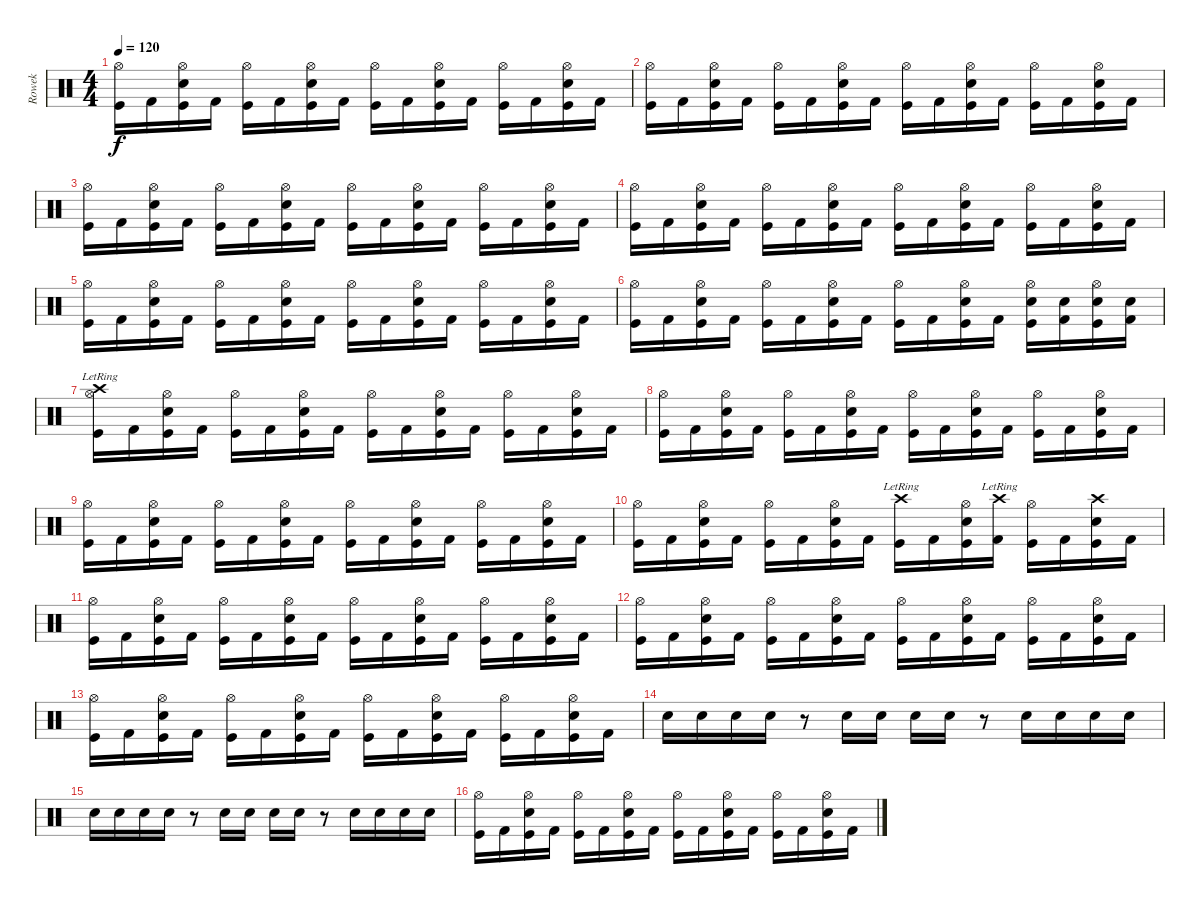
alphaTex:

\track ("Rowek" "Rowek") {instrument percussion}
\staff {score}
\articulation defaults
\ts (4 4)
\tempo 120
\clef neutral
\ks c
("Hi-Hat (open)" "Kick (hit)").16{dy f} "Kick (hit) 2".16 ("Hi-Hat (open)" "Snare (hit) 2" "Kick (hit)").16 "Kick (hit) 2".16 ("Hi-Hat (open)" "Kick (hit)").16 "Kick (hit) 2".16 ("Hi-Hat (open)" "Snare (hit) 2" "Kick (hit)").16 "Kick (hit) 2".16 ("Hi-Hat (open)" "Kick (hit)").16 "Kick (hit) 2".16 ("Hi-Hat (open)" "Snare (hit) 2" "Kick (hit)").16 "Kick (hit) 2".16 ("Hi-Hat (open)" "Kick (hit)").16 "Kick (hit) 2".16 ("Hi-Hat (open)" "Snare (hit) 2" "Kick (hit)").16 "Kick (hit) 2".16 |
("Hi-Hat (open)" "Kick (hit)").16 "Kick (hit) 2".16 ("Hi-Hat (open)" "Snare (hit) 2" "Kick (hit)").16 "Kick (hit) 2".16 ("Hi-Hat (open)" "Kick (hit)").16 "Kick (hit) 2".16 ("Hi-Hat (open)" "Snare (hit) 2" "Kick (hit)").16 "Kick (hit) 2".16 ("Hi-Hat (open)" "Kick (hit)").16 "Kick (hit) 2".16 ("Hi-Hat (open)" "Snare (hit) 2" "Kick (hit)").16 "Kick (hit) 2".16 ("Hi-Hat (open)" "Kick (hit)").16 "Kick (hit) 2".16 ("Hi-Hat (open)" "Snare (hit) 2" "Kick (hit)").16 "Kick (hit) 2".16 |
("Hi-Hat (open)" "Kick (hit)").16 "Kick (hit) 2".16 ("Hi-Hat (open)" "Snare (hit) 2" "Kick (hit)").16 "Kick (hit) 2".16 ("Hi-Hat (open)" "Kick (hit)").16 "Kick (hit) 2".16 ("Hi-Hat (open)" "Snare (hit) 2" "Kick (hit)").16 "Kick (hit) 2".16 ("Hi-Hat (open)" "Kick (hit)").16 "Kick (hit) 2".16 ("Hi-Hat (open)" "Snare (hit) 2" "Kick (hit)").16 "Kick (hit) 2".16 ("Hi-Hat (open)" "Kick (hit)").16 "Kick (hit) 2".16 ("Hi-Hat (open)" "Snare (hit) 2" "Kick (hit)").16 "Kick (hit) 2".16 |
("Hi-Hat (open)" "Kick (hit)").16 "Kick (hit) 2".16 ("Hi-Hat (open)" "Snare (hit) 2" "Kick (hit)").16 "Kick (hit) 2".16 ("Hi-Hat (open)" "Kick (hit)").16 "Kick (hit) 2".16 ("Hi-Hat (open)" "Snare (hit) 2" "Kick (hit)").16 "Kick (hit) 2".16 ("Hi-Hat (open)" "Kick (hit)").16 "Kick (hit) 2".16 ("Hi-Hat (open)" "Snare (hit) 2" "Kick (hit)").16 "Kick (hit) 2".16 ("Hi-Hat (open)" "Kick (hit)").16 "Kick (hit) 2".16 ("Hi-Hat (open)" "Snare (hit) 2" "Kick (hit)").16 "Kick (hit) 2".16 |
("Hi-Hat (open)" "Kick (hit)").16 "Kick (hit) 2".16 ("Hi-Hat (open)" "Snare (hit) 2" "Kick (hit)").16 "Kick (hit) 2".16 ("Hi-Hat (open)" "Kick (hit)").16 "Kick (hit) 2".16 ("Hi-Hat (open)" "Snare (hit) 2" "Kick (hit)").16 "Kick (hit) 2".16 ("Hi-Hat (open)" "Kick (hit)").16 "Kick (hit) 2".16 ("Hi-Hat (open)" "Snare (hit) 2" "Kick (hit)").16 "Kick (hit) 2".16 ("Hi-Hat (open)" "Kick (hit)").16 "Kick (hit) 2".16 ("Hi-Hat (open)" "Snare (hit) 2" "Kick (hit)").16 "Kick (hit) 2".16 |
("Hi-Hat (open)" "Kick (hit)").16 "Kick (hit) 2".16 ("Hi-Hat (open)" "Snare (hit) 2" "Kick (hit)").16 "Kick (hit) 2".16 ("Hi-Hat (open)" "Kick (hit)").16 "Kick (hit) 2".16 ("Hi-Hat (open)" "Snare (hit) 2" "Kick (hit)").16 "Kick (hit) 2".16 ("Hi-Hat (open)" "Kick (hit)").16 "Kick (hit) 2".16 ("Hi-Hat (open)" "Snare (hit) 2" "Kick (hit)").16 "Kick (hit) 2".16 ("Hi-Hat (open)" "Snare (hit) 2" "Kick (hit)").16 ("Snare (hit) 2" "Kick (hit) 2").16 ("Hi-Hat (open)" "Snare (hit) 2" "Kick (hit)").16 ("Snare (hit) 2" "Kick (hit) 2").16 |
("Hi-Hat (open)" "Crash high (hit)"{lr} "Kick (hit)").16 "Kick (hit) 2".16 ("Hi-Hat (open)" "Snare (hit) 2" "Kick (hit)").16 "Kick (hit) 2".16 ("Hi-Hat (open)" "Kick (hit)").16 "Kick (hit) 2".16 ("Hi-Hat (open)" "Snare (hit) 2" "Kick (hit)").16 "Kick (hit) 2".16 ("Hi-Hat (open)" "Kick (hit)").16 "Kick (hit) 2".16 ("Hi-Hat (open)" "Snare (hit) 2" "Kick (hit)").16 "Kick (hit) 2".16 ("Hi-Hat (open)" "Kick (hit)").16 "Kick (hit) 2".16 ("Hi-Hat (open)" "Snare (hit) 2" "Kick (hit)").16 "Kick (hit) 2".16 |
("Hi-Hat (open)" "Kick (hit)").16 "Kick (hit) 2".16 ("Hi-Hat (open)" "Snare (hit) 2" "Kick (hit)").16 "Kick (hit) 2".16 ("Hi-Hat (open)" "Kick (hit)").16 "Kick (hit) 2".16 ("Hi-Hat (open)" "Snare (hit) 2" "Kick (hit)").16 "Kick (hit) 2".16 ("Hi-Hat (open)" "Kick (hit)").16 "Kick (hit) 2".16 ("Hi-Hat (open)" "Snare (hit) 2" "Kick (hit)").16 "Kick (hit) 2".16 ("Hi-Hat (open)" "Kick (hit)").16 "Kick (hit) 2".16 ("Hi-Hat (open)" "Snare (hit) 2" "Kick (hit)").16 "Kick (hit) 2".16 |
("Hi-Hat (open)" "Kick (hit)").16 "Kick (hit) 2".16 ("Hi-Hat (open)" "Snare (hit) 2" "Kick (hit)").16 "Kick (hit) 2".16 ("Hi-Hat (open)" "Kick (hit)").16 "Kick (hit) 2".16 ("Hi-Hat (open)" "Snare (hit) 2" "Kick (hit)").16 "Kick (hit) 2".16 ("Hi-Hat (open)" "Kick (hit)").16 "Kick (hit) 2".16 ("Hi-Hat (open)" "Snare (hit) 2" "Kick (hit)").16 "Kick (hit) 2".16 ("Hi-Hat (open)" "Kick (hit)").16 "Kick (hit) 2".16 ("Hi-Hat (open)" "Snare (hit) 2" "Kick (hit)").16 "Kick (hit) 2".16 |
("Hi-Hat (open)" "Kick (hit)").16 "Kick (hit) 2".16 ("Hi-Hat (open)" "Snare (hit) 2" "Kick (hit)").16 "Kick (hit) 2".16 ("Hi-Hat (open)" "Kick (hit)").16 "Kick (hit) 2".16 ("Hi-Hat (open)" "Snare (hit) 2" "Kick (hit)").16 "Kick (hit) 2".16 ("Crash high (hit)"{lr} "Kick (hit)").16 "Kick (hit) 2".16 ("Hi-Hat (open)" "Snare (hit) 2" "Kick (hit)").16 ("Crash high (hit)"{lr} "Kick (hit) 2").16 ("Hi-Hat (open)" "Kick (hit)").16 "Kick (hit) 2".16 ("Crash high (hit)" "Snare (hit) 2" "Kick (hit)").16 "Kick (hit) 2".16 |
("Hi-Hat (open)" "Kick (hit)").16 "Kick (hit) 2".16 ("Hi-Hat (open)" "Snare (hit) 2" "Kick (hit)").16 "Kick (hit) 2".16 ("Hi-Hat (open)" "Kick (hit)").16 "Kick (hit) 2".16 ("Hi-Hat (open)" "Snare (hit) 2" "Kick (hit)").16 "Kick (hit) 2".16 ("Hi-Hat (open)" "Kick (hit)").16 "Kick (hit) 2".16 ("Hi-Hat (open)" "Snare (hit) 2" "Kick (hit)").16 "Kick (hit) 2".16 ("Hi-Hat (open)" "Kick (hit)").16 "Kick (hit) 2".16 ("Hi-Hat (open)" "Snare (hit) 2" "Kick (hit)").16 "Kick (hit) 2".16 |
("Hi-Hat (open)" "Kick (hit)").16 "Kick (hit) 2".16 ("Hi-Hat (open)" "Snare (hit) 2" "Kick (hit)").16 "Kick (hit) 2".16 ("Hi-Hat (open)" "Kick (hit)").16 "Kick (hit) 2".16 ("Hi-Hat (open)" "Snare (hit) 2" "Kick (hit)").16 "Kick (hit) 2".16 ("Hi-Hat (open)" "Kick (hit)").16 "Kick (hit) 2".16 ("Hi-Hat (open)" "Snare (hit) 2" "Kick (hit)").16 "Kick (hit) 2".16 ("Hi-Hat (open)" "Kick (hit)").16 "Kick (hit) 2".16 ("Hi-Hat (open)" "Snare (hit) 2" "Kick (hit)").16 "Kick (hit) 2".16 |
("Hi-Hat (open)" "Kick (hit)").16 "Kick (hit) 2".16 ("Hi-Hat (open)" "Snare (hit) 2" "Kick (hit)").16 "Kick (hit) 2".16 ("Hi-Hat (open)" "Kick (hit)").16 "Kick (hit) 2".16 ("Hi-Hat (open)" "Snare (hit) 2" "Kick (hit)").16 "Kick (hit) 2".16 ("Hi-Hat (open)" "Kick (hit)").16 "Kick (hit) 2".16 ("Hi-Hat (open)" "Snare (hit) 2" "Kick (hit)").16 "Kick (hit) 2".16 ("Hi-Hat (open)" "Kick (hit)").16 "Kick (hit) 2".16 ("Hi-Hat (open)" "Snare (hit) 2" "Kick (hit)").16 "Kick (hit) 2".16 |
"Electric Snare (hit)".16 "Electric Snare (hit)".16 "Electric Snare (hit)".16 "Electric Snare (hit)".16 r.8 "Electric Snare (hit)".16 "Electric Snare (hit)".16 "Electric Snare (hit)".16 "Electric Snare (hit)".16 r.8 "Electric Snare (hit)".16 "Electric Snare (hit)".16 "Electric Snare (hit)".16 "Electric Snare (hit)".16 |
"Snare (hit) 2".16 "Snare (hit) 2".16 "Snare (hit) 2".16 "Snare (hit) 2".16 r.8 "Snare (hit) 2".16 "Snare (hit) 2".16 "Snare (hit) 2".16 "Snare (hit) 2".16 r.8 "Snare (hit) 2".16 "Snare (hit) 2".16 "Snare (hit) 2".16 "Snare (hit) 2".16 |
("Hi-Hat (open)" "Kick (hit)").16 "Kick (hit) 2".16 ("Hi-Hat (open)" "Snare (hit) 2" "Kick (hit)").16 "Kick (hit) 2".16 ("Hi-Hat (open)" "Kick (hit)").16 "Kick (hit) 2".16 ("Hi-Hat (open)" "Snare (hit) 2" "Kick (hit)").16 "Kick (hit) 2".16 ("Hi-Hat (open)" "Kick (hit)").16 "Kick (hit) 2".16 ("Hi-Hat (open)" "Snare (hit) 2" "Kick (hit)").16 "Kick (hit) 2".16 ("Hi-Hat (open)" "Kick (hit)").16 "Kick (hit) 2".16 ("Hi-Hat (open)" "Snare (hit) 2" "Kick (hit)").16 "Kick (hit) 2".16
